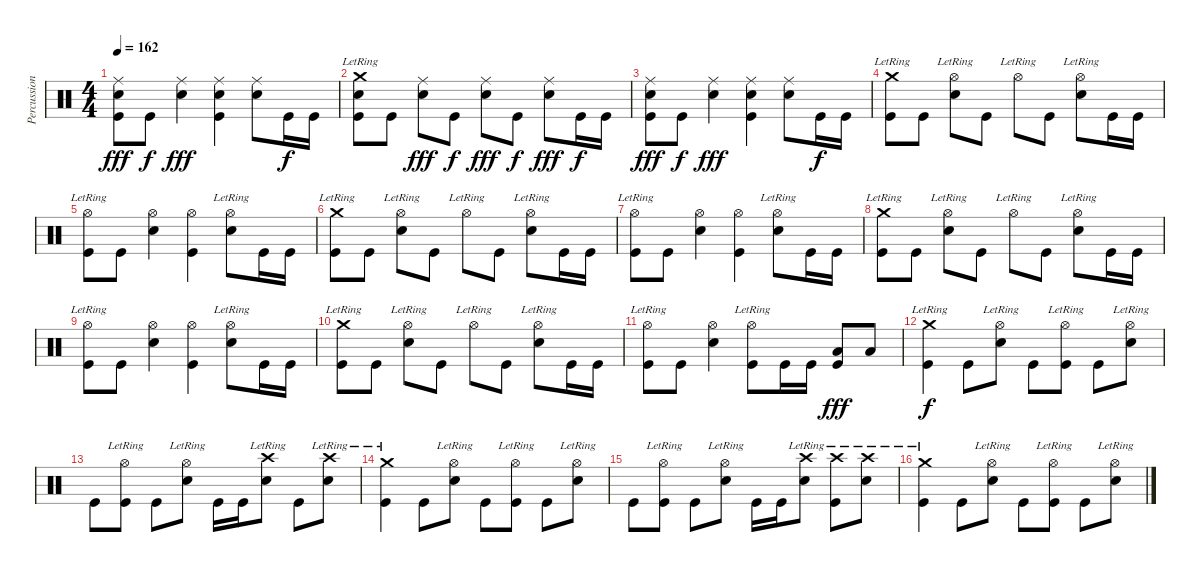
\track ("Percussions" "Percussion") {instrument percussion}
\staff {score}
\articulation defaults
\ts (4 4)
\tempo 162
\clef neutral
\ks c
("Ride (middle)" "Snare (hit) 2" "Kick (hit)").8{dy fff} "Kick (hit)".8{dy f} ("Ride (middle)" "Snare (hit) 2").4{dy fff} ("Ride (middle)" "Snare (hit) 2" "Kick (hit)").4 ("Ride (middle)" "Snare (hit) 2").8 "Kick (hit)".16{dy f} "Kick (hit)".16 |
("Crash medium (hit)"{lr} "Snare (hit) 2" "Kick (hit)").8 "Kick (hit)".8 ("Ride (middle)" "Snare (hit) 2").8{dy fff} "Kick (hit)".8{dy f} ("Ride (middle)" "Snare (hit) 2").8{dy fff} "Kick (hit)".8{dy f} ("Ride (middle)" "Snare (hit) 2").8{dy fff} "Kick (hit)".16{dy f} "Kick (hit)".16 |
("Ride (middle)" "Snare (hit) 2" "Kick (hit)").8{dy fff} "Kick (hit)".8{dy f} ("Ride (middle)" "Snare (hit) 2").4{dy fff} ("Ride (middle)" "Snare (hit) 2" "Kick (hit)").4 ("Ride (middle)" "Snare (hit) 2").8 "Kick (hit)".16{dy f} "Kick (hit)".16 |
("Crash medium (hit)"{lr} "Kick (hit)").8 "Kick (hit)".8 ("Hi-Hat (open)"{lr} "Snare (hit) 2").8 "Kick (hit)".8 "Hi-Hat (open)"{lr}.8 "Kick (hit)".8 ("Hi-Hat (open)"{lr} "Snare (hit) 2").8 "Kick (hit)".16 "Kick (hit)".16 |
("Hi-Hat (open)"{lr} "Kick (hit)").8 "Kick (hit)".8 ("Hi-Hat (open)" "Snare (hit) 2").4 ("Hi-Hat (open)" "Kick (hit)").4 ("Hi-Hat (open)"{lr} "Snare (hit) 2").8 "Kick (hit)".16 "Kick (hit)".16 |
("Crash medium (hit)"{lr} "Kick (hit)").8 "Kick (hit)".8 ("Hi-Hat (open)"{lr} "Snare (hit) 2").8 "Kick (hit)".8 "Hi-Hat (open)"{lr}.8 "Kick (hit)".8 ("Hi-Hat (open)"{lr} "Snare (hit) 2").8 "Kick (hit)".16 "Kick (hit)".16 |
("Hi-Hat (open)"{lr} "Kick (hit)").8 "Kick (hit)".8 ("Hi-Hat (open)" "Snare (hit) 2").4 ("Hi-Hat (open)" "Kick (hit)").4 ("Hi-Hat (open)"{lr} "Snare (hit) 2").8 "Kick (hit)".16 "Kick (hit)".16 |
("Crash medium (hit)"{lr} "Kick (hit)").8 "Kick (hit)".8 ("Hi-Hat (open)"{lr} "Snare (hit) 2").8 "Kick (hit)".8 "Hi-Hat (open)"{lr}.8 "Kick (hit)".8 ("Hi-Hat (open)"{lr} "Snare (hit) 2").8 "Kick (hit)".16 "Kick (hit)".16 |
("Hi-Hat (open)"{lr} "Kick (hit)").8 "Kick (hit)".8 ("Hi-Hat (open)" "Snare (hit) 2").4 ("Hi-Hat (open)" "Kick (hit)").4 ("Hi-Hat (open)"{lr} "Snare (hit) 2").8 "Kick (hit)".16 "Kick (hit)".16 |
("Crash medium (hit)"{lr} "Kick (hit)").8 "Kick (hit)".8 ("Hi-Hat (open)"{lr} "Snare (hit) 2").8 "Kick (hit)".8 "Hi-Hat (open)"{lr}.8 "Kick (hit)".8 ("Hi-Hat (open)"{lr} "Snare (hit) 2").8 "Kick (hit)".16 "Kick (hit)".16 |
("Hi-Hat (open)"{lr} "Kick (hit)").8 "Kick (hit)".8 ("Hi-Hat (open)" "Snare (hit) 2").4 ("Hi-Hat (open)"{lr} "Kick (hit)").8 "Kick (hit)".16 "Kick (hit)".16 ("Low Floor Tom (hit)" "Kick (hit)").8{dy fff} "Low Floor Tom (hit)".8 |
("Crash medium (hit)"{lr} "Kick (hit)").4{dy f} "Kick (hit)".8 ("Hi-Hat (open)"{lr} "Snare (hit) 2").8 "Kick (hit)".8 ("Hi-Hat (open)"{lr} "Kick (hit)").8 "Kick (hit)".8 ("Hi-Hat (open)"{lr} "Snare (hit) 2").8 |
"Kick (hit)".8 ("Hi-Hat (open)"{lr} "Kick (hit)").8 "Kick (hit)".8 ("Hi-Hat (open)"{lr} "Snare (hit) 2").8 "Kick (hit)".16 "Kick (hit)".16 ("Crash high (hit)"{lr} "Snare (hit) 2").8 "Kick (hit)".8 ("Crash high (hit)"{lr} "Snare (hit) 2").8 |
("Crash medium (hit)"{lr} "Kick (hit)").4 "Kick (hit)".8 ("Hi-Hat (open)"{lr} "Snare (hit) 2").8 "Kick (hit)".8 ("Hi-Hat (open)"{lr} "Kick (hit)").8 "Kick (hit)".8 ("Hi-Hat (open)"{lr} "Snare (hit) 2").8 |
"Kick (hit)".8 ("Hi-Hat (open)"{lr} "Kick (hit)").8 "Kick (hit)".8 ("Hi-Hat (open)"{lr} "Snare (hit) 2").8 "Kick (hit)".16 "Kick (hit)".16 ("Crash high (hit)"{lr} "Snare (hit) 2").8 ("Crash high (hit)"{lr} "Kick (hit)").8 ("Crash high (hit)"{lr} "Snare (hit) 2").8 |
("Crash medium (hit)"{lr} "Kick (hit)").4 "Kick (hit)".8 ("Hi-Hat (open)"{lr} "Snare (hit) 2").8 "Kick (hit)".8 ("Hi-Hat (open)"{lr} "Kick (hit)").8 "Kick (hit)".8 ("Hi-Hat (open)"{lr} "Snare (hit) 2").8
